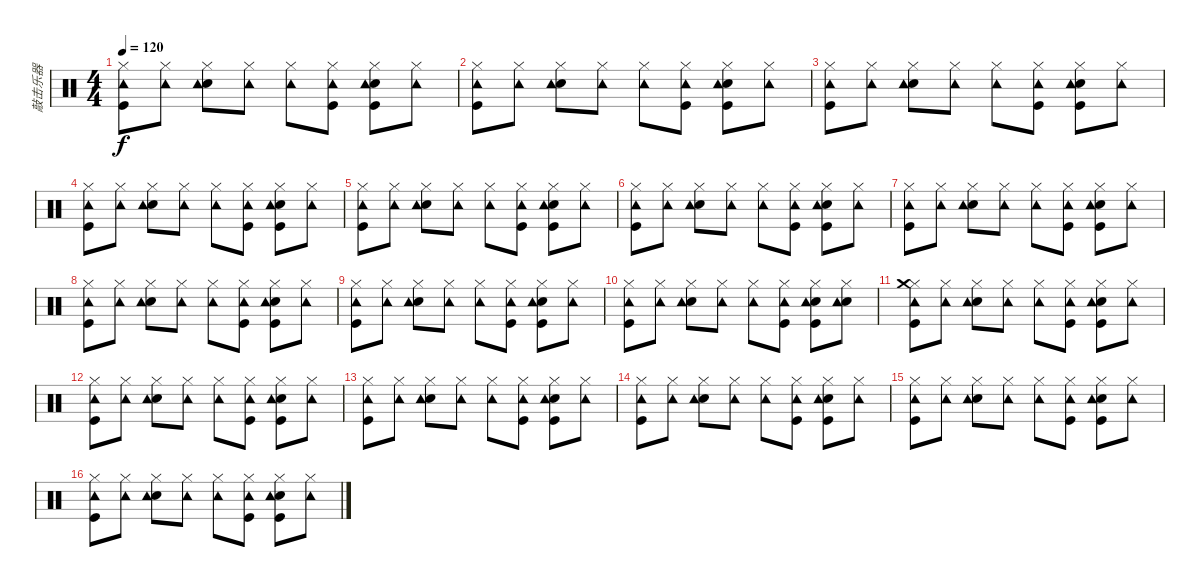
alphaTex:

\track ("敲击乐器" "敲击乐器") {instrument percussion}
\staff {score}
\articulation defaults
\ts (4 4)
\tempo 120
\clef neutral
\ks c
("Hi-Hat (closed)" "Kick (hit)" "Tambourine (hit)").8{dy f} ("Hi-Hat (closed)" "Tambourine (hit)").8 ("Hi-Hat (closed)" "Snare (hit) 2" "Tambourine (hit)").8 ("Hi-Hat (closed)" "Tambourine (hit)").8 ("Hi-Hat (closed)" "Tambourine (hit)").8 ("Hi-Hat (closed)" "Kick (hit)" "Tambourine (hit)").8 ("Hi-Hat (closed)" "Snare (hit) 2" "Kick (hit)" "Tambourine (hit)").8 ("Hi-Hat (closed)" "Tambourine (hit)").8 |
("Hi-Hat (closed)" "Kick (hit)" "Tambourine (hit)").8 ("Hi-Hat (closed)" "Tambourine (hit)").8 ("Hi-Hat (closed)" "Snare (hit) 2" "Tambourine (hit)").8 ("Hi-Hat (closed)" "Tambourine (hit)").8 ("Hi-Hat (closed)" "Tambourine (hit)").8 ("Hi-Hat (closed)" "Kick (hit)" "Tambourine (hit)").8 ("Hi-Hat (closed)" "Snare (hit) 2" "Kick (hit)" "Tambourine (hit)").8 ("Hi-Hat (closed)" "Tambourine (hit)").8 |
("Hi-Hat (closed)" "Kick (hit)" "Tambourine (hit)").8 ("Hi-Hat (closed)" "Tambourine (hit)").8 ("Hi-Hat (closed)" "Snare (hit) 2" "Tambourine (hit)").8 ("Hi-Hat (closed)" "Tambourine (hit)").8 ("Hi-Hat (closed)" "Tambourine (hit)").8 ("Hi-Hat (closed)" "Kick (hit)" "Tambourine (hit)").8 ("Hi-Hat (closed)" "Snare (hit) 2" "Kick (hit)" "Tambourine (hit)").8 ("Hi-Hat (closed)" "Tambourine (hit)").8 |
("Hi-Hat (closed)" "Kick (hit)" "Tambourine (hit)").8 ("Hi-Hat (closed)" "Tambourine (hit)").8 ("Hi-Hat (closed)" "Snare (hit) 2" "Tambourine (hit)").8 ("Hi-Hat (closed)" "Tambourine (hit)").8 ("Hi-Hat (closed)" "Tambourine (hit)").8 ("Hi-Hat (closed)" "Kick (hit)" "Tambourine (hit)").8 ("Hi-Hat (closed)" "Snare (hit) 2" "Kick (hit)" "Tambourine (hit)").8 ("Hi-Hat (closed)" "Tambourine (hit)").8 |
("Hi-Hat (closed)" "Kick (hit)" "Tambourine (hit)").8 ("Hi-Hat (closed)" "Tambourine (hit)").8 ("Hi-Hat (closed)" "Snare (hit) 2" "Tambourine (hit)").8 ("Hi-Hat (closed)" "Tambourine (hit)").8 ("Hi-Hat (closed)" "Tambourine (hit)").8 ("Hi-Hat (closed)" "Kick (hit)" "Tambourine (hit)").8 ("Hi-Hat (closed)" "Snare (hit) 2" "Kick (hit)" "Tambourine (hit)").8 ("Hi-Hat (closed)" "Tambourine (hit)").8 |
("Hi-Hat (closed)" "Kick (hit)" "Tambourine (hit)").8 ("Hi-Hat (closed)" "Tambourine (hit)").8 ("Hi-Hat (closed)" "Snare (hit) 2" "Tambourine (hit)").8 ("Hi-Hat (closed)" "Tambourine (hit)").8 ("Hi-Hat (closed)" "Tambourine (hit)").8 ("Hi-Hat (closed)" "Kick (hit)" "Tambourine (hit)").8 ("Hi-Hat (closed)" "Snare (hit) 2" "Kick (hit)" "Tambourine (hit)").8 ("Hi-Hat (closed)" "Tambourine (hit)").8 |
("Hi-Hat (closed)" "Kick (hit)" "Tambourine (hit)").8 ("Hi-Hat (closed)" "Tambourine (hit)").8 ("Hi-Hat (closed)" "Snare (hit) 2" "Tambourine (hit)").8 ("Hi-Hat (closed)" "Tambourine (hit)").8 ("Hi-Hat (closed)" "Tambourine (hit)").8 ("Hi-Hat (closed)" "Kick (hit)" "Tambourine (hit)").8 ("Hi-Hat (closed)" "Snare (hit) 2" "Kick (hit)" "Tambourine (hit)").8 ("Hi-Hat (closed)" "Tambourine (hit)").8 |
("Hi-Hat (closed)" "Kick (hit)" "Tambourine (hit)").8 ("Hi-Hat (closed)" "Tambourine (hit)").8 ("Hi-Hat (closed)" "Snare (hit) 2" "Tambourine (hit)").8 ("Hi-Hat (closed)" "Tambourine (hit)").8 ("Hi-Hat (closed)" "Tambourine (hit)").8 ("Hi-Hat (closed)" "Kick (hit)" "Tambourine (hit)").8 ("Hi-Hat (closed)" "Snare (hit) 2" "Kick (hit)" "Tambourine (hit)").8 ("Hi-Hat (closed)" "Tambourine (hit)").8 |
("Hi-Hat (closed)" "Kick (hit)" "Tambourine (hit)").8 ("Hi-Hat (closed)" "Tambourine (hit)").8 ("Hi-Hat (closed)" "Snare (hit) 2" "Tambourine (hit)").8 ("Hi-Hat (closed)" "Tambourine (hit)").8 ("Hi-Hat (closed)" "Tambourine (hit)").8 ("Hi-Hat (closed)" "Kick (hit)" "Tambourine (hit)").8 ("Hi-Hat (closed)" "Snare (hit) 2" "Kick (hit)" "Tambourine (hit)").8 ("Hi-Hat (closed)" "Tambourine (hit)").8 |
("Hi-Hat (closed)" "Kick (hit)" "Tambourine (hit)").8 ("Hi-Hat (closed)" "Tambourine (hit)").8 ("Hi-Hat (closed)" "Snare (hit) 2" "Tambourine (hit)").8 ("Hi-Hat (closed)" "Tambourine (hit)").8 ("Hi-Hat (closed)" "Tambourine (hit)").8 ("Hi-Hat (closed)" "Kick (hit)" "Tambourine (hit)").8 ("Hi-Hat (closed)" "Snare (hit) 2" "Kick (hit)" "Tambourine (hit)").8 ("Hi-Hat (closed)" "Snare (hit) 2" "Tambourine (hit)").8 |
("Hi-Hat (closed)" "Kick (hit)" "Crash medium (hit)" "Tambourine (hit)").8 ("Hi-Hat (closed)" "Tambourine (hit)").8 ("Hi-Hat (closed)" "Snare (hit) 2" "Tambourine (hit)").8 ("Hi-Hat (closed)" "Tambourine (hit)").8 ("Hi-Hat (closed)" "Tambourine (hit)").8 ("Hi-Hat (closed)" "Kick (hit)" "Tambourine (hit)").8 ("Hi-Hat (closed)" "Snare (hit) 2" "Kick (hit)" "Tambourine (hit)").8 ("Hi-Hat (closed)" "Tambourine (hit)").8 |
("Hi-Hat (closed)" "Kick (hit)" "Tambourine (hit)").8 ("Hi-Hat (closed)" "Tambourine (hit)").8 ("Hi-Hat (closed)" "Snare (hit) 2" "Tambourine (hit)").8 ("Hi-Hat (closed)" "Tambourine (hit)").8 ("Hi-Hat (closed)" "Tambourine (hit)").8 ("Hi-Hat (closed)" "Kick (hit)" "Tambourine (hit)").8 ("Hi-Hat (closed)" "Snare (hit) 2" "Kick (hit)" "Tambourine (hit)").8 ("Hi-Hat (closed)" "Tambourine (hit)").8 |
("Hi-Hat (closed)" "Kick (hit)" "Tambourine (hit)").8 ("Hi-Hat (closed)" "Tambourine (hit)").8 ("Hi-Hat (closed)" "Snare (hit) 2" "Tambourine (hit)").8 ("Hi-Hat (closed)" "Tambourine (hit)").8 ("Hi-Hat (closed)" "Tambourine (hit)").8 ("Hi-Hat (closed)" "Kick (hit)" "Tambourine (hit)").8 ("Hi-Hat (closed)" "Snare (hit) 2" "Kick (hit)" "Tambourine (hit)").8 ("Hi-Hat (closed)" "Tambourine (hit)").8 |
("Hi-Hat (closed)" "Kick (hit)" "Tambourine (hit)").8 ("Hi-Hat (closed)" "Tambourine (hit)").8 ("Hi-Hat (closed)" "Snare (hit) 2" "Tambourine (hit)").8 ("Hi-Hat (closed)" "Tambourine (hit)").8 ("Hi-Hat (closed)" "Tambourine (hit)").8 ("Hi-Hat (closed)" "Kick (hit)" "Tambourine (hit)").8 ("Hi-Hat (closed)" "Snare (hit) 2" "Kick (hit)" "Tambourine (hit)").8 ("Hi-Hat (closed)" "Tambourine (hit)").8 |
("Hi-Hat (closed)" "Kick (hit)" "Tambourine (hit)").8 ("Hi-Hat (closed)" "Tambourine (hit)").8 ("Hi-Hat (closed)" "Snare (hit) 2" "Tambourine (hit)").8 ("Hi-Hat (closed)" "Tambourine (hit)").8 ("Hi-Hat (closed)" "Tambourine (hit)").8 ("Hi-Hat (closed)" "Kick (hit)" "Tambourine (hit)").8 ("Hi-Hat (closed)" "Snare (hit) 2" "Kick (hit)" "Tambourine (hit)").8 ("Hi-Hat (closed)" "Tambourine (hit)").8 |
("Hi-Hat (closed)" "Kick (hit)" "Tambourine (hit)").8 ("Hi-Hat (closed)" "Tambourine (hit)").8 ("Hi-Hat (closed)" "Snare (hit) 2" "Tambourine (hit)").8 ("Hi-Hat (closed)" "Tambourine (hit)").8 ("Hi-Hat (closed)" "Tambourine (hit)").8 ("Hi-Hat (closed)" "Kick (hit)" "Tambourine (hit)").8 ("Hi-Hat (closed)" "Snare (hit) 2" "Kick (hit)" "Tambourine (hit)").8 ("Hi-Hat (closed)" "Tambourine (hit)").8
